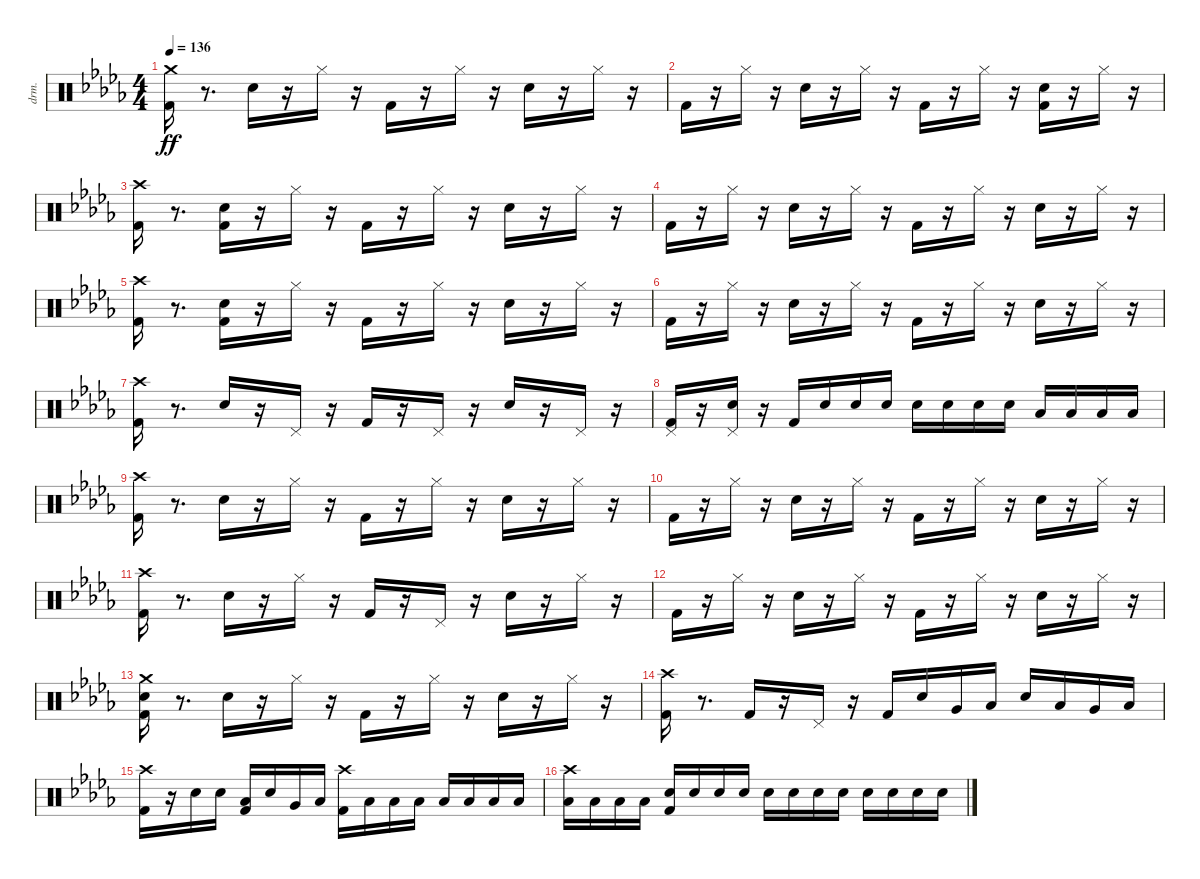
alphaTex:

\bracketExtendMode nobrackets
\track ("Drums" "drm.") {instrument percussion}
\staff {score}
\articulation defaults
\ts (4 4)
\tempo 136
\clef neutral
\ks db
("Kick (hit) 2"{acc forcenatural} "Crash medium (hit)"{acc forcenatural}).16{dy ff beam Down} r.8{d beam Down} "Electric Snare (hit)"{acc forcenatural}.16{beam Down} r.16{beam Down} "Hi-Hat (closed)"{acc #}.16{beam Down} r.16{beam Down} "Kick (hit) 2"{acc forcenatural}.16{beam Down} r.16{beam Down} "Hi-Hat (closed)"{acc #}.16{beam Down} r.16{beam Down} "Electric Snare (hit)"{acc forcenatural}.16{beam Down} r.16{beam Down} "Hi-Hat (closed)"{acc #}.16{beam Down} r.16{beam Down} |
"Kick (hit) 2"{acc forcenatural}.16{beam Down} r.16{beam Down} "Hi-Hat (closed)"{acc #}.16{beam Down} r.16{beam Down} "Electric Snare (hit)"{acc forcenatural}.16{beam Down} r.16{beam Down} "Hi-Hat (closed)"{acc #}.16{beam Down} r.16{beam Down} "Kick (hit) 2"{acc forcenatural}.16{beam Down} r.16{beam Down} "Hi-Hat (closed)"{acc #}.16{beam Down} r.16{beam Down} ("Kick (hit) 2"{acc forcenatural} "Electric Snare (hit)"{acc forcenatural}).16{beam Down} r.16{beam Down} "Hi-Hat (closed)"{acc #}.16{beam Down} r.16{beam Down} |
("Kick (hit) 2"{acc forcenatural} "Crash high (hit)"{acc #}).16{beam Down} r.8{d beam Down} ("Kick (hit) 2"{acc forcenatural} "Electric Snare (hit)"{acc forcenatural}).16{beam Down} r.16{beam Down} "Hi-Hat (closed)"{acc #}.16{beam Down} r.16{beam Down} "Kick (hit) 2"{acc forcenatural}.16{beam Down} r.16{beam Down} "Hi-Hat (closed)"{acc #}.16{beam Down} r.16{beam Down} "Electric Snare (hit)"{acc forcenatural}.16{beam Down} r.16{beam Down} "Hi-Hat (closed)"{acc #}.16{beam Down} r.16{beam Down} |
"Kick (hit) 2"{acc forcenatural}.16{beam Down} r.16{beam Down} "Hi-Hat (closed)"{acc #}.16{beam Down} r.16{beam Down} "Electric Snare (hit)"{acc forcenatural}.16{beam Down} r.16{beam Down} "Hi-Hat (closed)"{acc #}.16{beam Down} r.16{beam Down} "Kick (hit) 2"{acc forcenatural}.16{beam Down} r.16{beam Down} "Hi-Hat (closed)"{acc #}.16{beam Down} r.16{beam Down} "Electric Snare (hit)"{acc forcenatural}.16{beam Down} r.16{beam Down} "Hi-Hat (closed)"{acc #}.16{beam Down} r.16{beam Down} |
("Kick (hit) 2"{acc forcenatural} "Crash high (hit)"{acc #}).16{beam Down} r.8{d beam Down} ("Kick (hit) 2"{acc forcenatural} "Electric Snare (hit)"{acc forcenatural}).16{beam Down} r.16{beam Down} "Hi-Hat (closed)"{acc #}.16{beam Down} r.16{beam Down} "Kick (hit) 2"{acc forcenatural}.16{beam Down} r.16{beam Down} "Hi-Hat (closed)"{acc #}.16{beam Down} r.16{beam Down} "Electric Snare (hit)"{acc forcenatural}.16{beam Down} r.16{beam Down} "Hi-Hat (closed)"{acc #}.16{beam Down} r.16{beam Down} |
"Kick (hit) 2"{acc forcenatural}.16{beam Down} r.16{beam Down} "Hi-Hat (closed)"{acc #}.16{beam Down} r.16{beam Down} "Electric Snare (hit)"{acc forcenatural}.16{beam Down} r.16{beam Down} "Hi-Hat (closed)"{acc #}.16{beam Down} r.16{beam Down} "Kick (hit) 2"{acc forcenatural}.16{beam Down} r.16{beam Down} "Hi-Hat (closed)"{acc #}.16{beam Down} r.16{beam Down} "Electric Snare (hit)"{acc forcenatural}.16{beam Down} r.16{beam Down} "Hi-Hat (closed)"{acc #}.16{beam Down} r.16{beam Down} |
("Kick (hit) 2"{acc forcenatural} "Crash high (hit)"{acc #}).16{beam Down} r.8{d beam Down} "Electric Snare (hit)"{acc forcenatural}.16{beam Up} r.16{beam Up} "Pedal Hi-Hat (hit)"{acc #}.16{beam Up} r.16{beam Down} "Kick (hit) 2"{acc forcenatural}.16{beam Up} r.16{beam Up} "Pedal Hi-Hat (hit)"{acc #}.16{beam Up} r.16{beam Down} "Electric Snare (hit)"{acc forcenatural}.16{beam Up} r.16{beam Up} "Pedal Hi-Hat (hit)"{acc #}.16{beam Up} r.16{beam Down} |
("Kick (hit) 2"{acc forcenatural} "Pedal Hi-Hat (hit)"{acc #}).16{beam Up} r.16{beam Up} ("Electric Snare (hit)"{acc forcenatural} "Pedal Hi-Hat (hit)"{acc #}).16{beam Up} r.16{beam Down} "Kick (hit) 2"{acc forcenatural}.16{beam Up} "Electric Snare (hit)"{acc forcenatural}.16{beam Up} "Electric Snare (hit)"{acc forcenatural}.16{beam Up} "Electric Snare (hit)"{acc forcenatural}.16{beam Up} "Electric Snare (hit)"{acc forcenatural}.16{beam Down} "Electric Snare (hit)"{acc forcenatural}.16{beam Down} "Electric Snare (hit)"{acc forcenatural}.16{beam Down} "Electric Snare (hit)"{acc forcenatural}.16{beam Down} "Low Floor Tom (hit)"{acc forcenatural}.16{beam Up} "Low Floor Tom (hit)"{acc forcenatural}.16{beam Up} "Low Floor Tom (hit)"{acc forcenatural}.16{beam Up} "Low Floor Tom (hit)"{acc forcenatural}.16{beam Up} |
("Kick (hit) 2"{acc forcenatural} "Crash high (hit)"{acc #}).16{beam Down} r.8{d beam Down} "Electric Snare (hit)"{acc forcenatural}.16{beam Down} r.16{beam Down} "Hi-Hat (closed)"{acc #}.16{beam Down} r.16{beam Down} "Kick (hit) 2"{acc forcenatural}.16{beam Down} r.16{beam Down} "Hi-Hat (closed)"{acc #}.16{beam Down} r.16{beam Down} "Electric Snare (hit)"{acc forcenatural}.16{beam Down} r.16{beam Down} "Hi-Hat (closed)"{acc #}.16{beam Down} r.16{beam Down} |
"Kick (hit) 2"{acc forcenatural}.16{beam Down} r.16{beam Down} "Hi-Hat (closed)"{acc #}.16{beam Down} r.16{beam Down} "Electric Snare (hit)"{acc forcenatural}.16{beam Down} r.16{beam Down} "Hi-Hat (closed)"{acc #}.16{beam Down} r.16{beam Down} "Kick (hit) 2"{acc forcenatural}.16{beam Down} r.16{beam Down} "Hi-Hat (closed)"{acc #}.16{beam Down} r.16{beam Down} "Electric Snare (hit)"{acc forcenatural}.16{beam Down} r.16{beam Down} "Hi-Hat (closed)"{acc #}.16{beam Down} r.16{beam Down} |
("Kick (hit) 2"{acc forcenatural} "Crash high (hit)"{acc #}).16{beam Down} r.8{d beam Down} "Electric Snare (hit)"{acc forcenatural}.16{beam Down} r.16{beam Down} "Hi-Hat (closed)"{acc #}.16{beam Down} r.16{beam Down} "Kick (hit) 2"{acc forcenatural}.16{beam Up} r.16{beam Up} "Pedal Hi-Hat (hit)"{acc #}.16{beam Up} r.16{beam Down} "Electric Snare (hit)"{acc forcenatural}.16{beam Down} r.16{beam Down} "Hi-Hat (closed)"{acc #}.16{beam Down} r.16{beam Down} |
"Kick (hit) 2"{acc forcenatural}.16{beam Down} r.16{beam Down} "Hi-Hat (closed)"{acc #}.16{beam Down} r.16{beam Down} "Electric Snare (hit)"{acc forcenatural}.16{beam Down} r.16{beam Down} "Hi-Hat (closed)"{acc #}.16{beam Down} r.16{beam Down} "Kick (hit) 2"{acc forcenatural}.16{beam Down} r.16{beam Down} "Hi-Hat (closed)"{acc #}.16{beam Down} r.16{beam Down} "Electric Snare (hit)"{acc forcenatural}.16{beam Down} r.16{beam Down} "Hi-Hat (closed)"{acc #}.16{beam Down} r.16{beam Down} |
("Kick (hit) 2"{acc forcenatural} "Electric Snare (hit)"{acc forcenatural} "Crash medium (hit)"{acc forcenatural}).16{beam Down} r.8{d beam Down} "Electric Snare (hit)"{acc forcenatural}.16{beam Down} r.16{beam Down} "Hi-Hat (closed)"{acc #}.16{beam Down} r.16{beam Down} "Kick (hit) 2"{acc forcenatural}.16{beam Down} r.16{beam Down} "Hi-Hat (closed)"{acc #}.16{beam Down} r.16{beam Down} "Electric Snare (hit)"{acc forcenatural}.16{beam Down} r.16{beam Down} "Hi-Hat (closed)"{acc #}.16{beam Down} r.16{beam Down} |
("Kick (hit) 2"{acc forcenatural} "Crash high (hit)"{acc #}).16{beam Down} r.8{d beam Down} "Kick (hit) 2"{acc forcenatural}.16{beam Up} r.16{beam Up} "Pedal Hi-Hat (hit)"{acc #}.16{beam Up} r.16{beam Down} "Kick (hit) 2"{acc forcenatural}.16{beam Up} "Electric Snare (hit)"{acc forcenatural}.16{beam Up} "Very Low Tom (hit)"{acc forcenatural}.16{beam Up} "Low Floor Tom (hit)"{acc forcenatural}.16{beam Up} "Electric Snare (hit)"{acc forcenatural}.16{beam Up} "Low Tom (hit)"{acc forcenatural}.16{beam Up} "Very Low Tom (hit)"{acc forcenatural}.16{beam Up} "Low Floor Tom (hit)"{acc forcenatural}.16{beam Up} |
("Kick (hit) 2"{acc forcenatural} "Crash high (hit)"{acc #}).16{beam Down} r.16{beam Down} "Electric Snare (hit)"{acc forcenatural}.16{beam Down} "Electric Snare (hit)"{acc forcenatural}.16{beam Down} ("Kick (hit) 2"{acc forcenatural} "Low Floor Tom (hit)"{acc forcenatural}).16{beam Up} "Electric Snare (hit)"{acc forcenatural}.16{beam Up} "Very Low Tom (hit)"{acc forcenatural}.16{beam Up} "Low Floor Tom (hit)"{acc forcenatural}.16{beam Up} ("Kick (hit) 2"{acc forcenatural} "Crash high (hit)"{acc #}).16{beam Down} "Low Floor Tom (hit)"{acc forcenatural}.16{beam Down} "Low Floor Tom (hit)"{acc forcenatural}.16{beam Down} "Low Floor Tom (hit)"{acc forcenatural}.16{beam Down} "Low Floor Tom (hit)"{acc forcenatural}.16{beam Up} "Low Floor Tom (hit)"{acc forcenatural}.16{beam Up} "Low Floor Tom (hit)"{acc forcenatural}.16{beam Up} "Low Floor Tom (hit)"{acc forcenatural}.16{beam Up} |
("Low Floor Tom (hit)"{acc forcenatural} "Crash high (hit)"{acc #}).16{beam Down} "Low Floor Tom (hit)"{acc forcenatural}.16{beam Down} "Low Floor Tom (hit)"{acc forcenatural}.16{beam Down} "Low Floor Tom (hit)"{acc forcenatural}.16{beam Down} ("Kick (hit) 2"{acc forcenatural} "Electric Snare (hit)"{acc forcenatural}).16{beam Up} "Electric Snare (hit)"{acc forcenatural}.16{beam Up} "Electric Snare (hit)"{acc forcenatural}.16{beam Up} "Electric Snare (hit)"{acc forcenatural}.16{beam Up} "Electric Snare (hit)"{acc forcenatural}.16{beam Down} "Electric Snare (hit)"{acc forcenatural}.16{beam Down} "Electric Snare (hit)"{acc forcenatural}.16{beam Down} "Electric Snare (hit)"{acc forcenatural}.16{beam Down} "Electric Snare (hit)"{acc forcenatural}.16{beam Down} "Electric Snare (hit)"{acc forcenatural}.16{beam Down} "Electric Snare (hit)"{acc forcenatural}.16{beam Down} "Electric Snare (hit)"{acc forcenatural}.16{beam Down}
